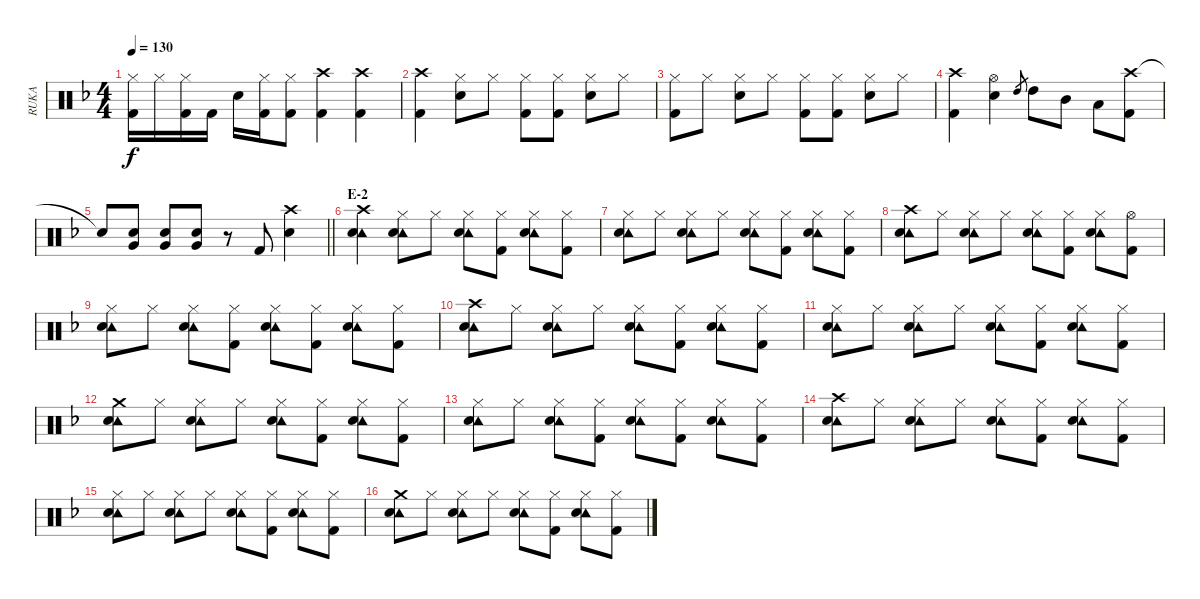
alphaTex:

\track ("RUKA" "RUKA") {instrument percussion}
\staff {score}
\articulation defaults
\ts (4 4)
\tempo 130
\clef neutral
\ks f
("Hi-Hat (closed)" "Kick (hit) 2").16{dy f} "Hi-Hat (closed)".16 ("Hi-Hat (closed)" "Kick (hit) 2").16 "Kick (hit) 2".16 "Snare (hit) 2".16 ("Hi-Hat (closed)" "Kick (hit) 2").16 ("Hi-Hat (closed)" "Kick (hit) 2").8 ("Crash high (hit)" "Kick (hit) 2").4 ("Crash high (hit)" "Kick (hit) 2").4 |
("Crash high (hit)" "Kick (hit) 2").4 ("Hi-Hat (closed)" "Snare (hit) 2").8 "Hi-Hat (closed)".8 ("Hi-Hat (closed)" "Kick (hit) 2").8 ("Hi-Hat (closed)" "Kick (hit) 2").8 ("Hi-Hat (closed)" "Snare (hit) 2").8 "Hi-Hat (closed)".8 |
("Hi-Hat (closed)" "Kick (hit) 2").8 "Hi-Hat (closed)".8 ("Hi-Hat (closed)" "Snare (hit) 2").8 "Hi-Hat (closed)".8 ("Hi-Hat (closed)" "Kick (hit) 2").8 ("Hi-Hat (closed)" "Kick (hit) 2").8 ("Hi-Hat (closed)" "Snare (hit) 2").8 "Hi-Hat (closed)".8 |
("Crash high (hit)" "Kick (hit) 2").4 ("Hi-Hat (open)" "Snare (hit) 2").4 "High Tom (hit)".8{gr} "High Tom (hit)".8 "Mid Tom (hit)".8 "Low Tom (hit)".8 ("Crash high (hit)" "Kick (hit) 2").8 |
\barLineRight lightlight "Snare (hit)"{t}.8
("Snare (hit) 2" "Very Low Tom (hit)").8 ("Snare (hit) 2" "Very Low Tom (hit)").8 ("Snare (hit) 2" "Very Low Tom (hit)").8 r.8 "Kick (hit) 2".8 ("Crash high (hit)" "Snare (hit) 2").4 |
\section ("" "E-2")
("Crash high (hit)" "Tambourine (hit)" "Snare (hit) 2").4 ("Hi-Hat (closed)" "Tambourine (hit)" "Snare (hit) 2").8 "Hi-Hat (closed)".8 ("Hi-Hat (closed)" "Tambourine (hit)" "Snare (hit) 2").8 ("Hi-Hat (closed)" "Kick (hit) 2").8 ("Hi-Hat (closed)" "Tambourine (hit)" "Snare (hit) 2").8 ("Hi-Hat (closed)" "Kick (hit) 2").8 |
("Hi-Hat (closed)" "Tambourine (hit)" "Snare (hit) 2").8 "Hi-Hat (closed)".8 ("Hi-Hat (closed)" "Tambourine (hit)" "Snare (hit) 2").8 "Hi-Hat (closed)".8 ("Hi-Hat (closed)" "Tambourine (hit)" "Snare (hit) 2").8 ("Hi-Hat (closed)" "Kick (hit) 2").8 ("Hi-Hat (closed)" "Tambourine (hit)" "Snare (hit) 2").8 ("Hi-Hat (closed)" "Kick (hit) 2").8 |
("Crash high (hit)" "Tambourine (hit)" "Snare (hit) 2").8 "Hi-Hat (closed)".8 ("Hi-Hat (closed)" "Tambourine (hit)" "Snare (hit) 2").8 "Hi-Hat (closed)".8 ("Hi-Hat (closed)" "Tambourine (hit)" "Snare (hit) 2").8 ("Hi-Hat (closed)" "Kick (hit) 2").8 ("Hi-Hat (closed)" "Tambourine (hit)" "Snare (hit) 2").8 ("Hi-Hat (open)" "Kick (hit) 2").8 |
("Hi-Hat (closed)" "Tambourine (hit)" "Snare (hit) 2").8 "Hi-Hat (closed)".8 ("Hi-Hat (closed)" "Tambourine (hit)" "Snare (hit) 2").8 ("Hi-Hat (closed)" "Kick (hit) 2").8 ("Hi-Hat (closed)" "Tambourine (hit)" "Snare (hit) 2").8 ("Hi-Hat (closed)" "Kick (hit) 2").8 ("Hi-Hat (closed)" "Tambourine (hit)" "Snare (hit) 2").8 ("Hi-Hat (closed)" "Kick (hit) 2").8 |
("Crash high (hit)" "Tambourine (hit)" "Snare (hit) 2").8 "Hi-Hat (closed)".8 ("Hi-Hat (closed)" "Tambourine (hit)" "Snare (hit) 2").8 "Hi-Hat (closed)".8 ("Hi-Hat (closed)" "Tambourine (hit)" "Snare (hit) 2").8 ("Hi-Hat (closed)" "Kick (hit) 2").8 ("Hi-Hat (closed)" "Tambourine (hit)" "Snare (hit) 2").8 ("Hi-Hat (closed)" "Kick (hit) 2").8 |
("Hi-Hat (closed)" "Tambourine (hit)" "Snare (hit) 2").8 "Hi-Hat (closed)".8 ("Hi-Hat (closed)" "Tambourine (hit)" "Snare (hit) 2").8 "Hi-Hat (closed)".8 ("Hi-Hat (closed)" "Tambourine (hit)" "Snare (hit) 2").8 ("Hi-Hat (closed)" "Kick (hit) 2").8 ("Hi-Hat (closed)" "Tambourine (hit)" "Snare (hit) 2").8 ("Hi-Hat (closed)" "Kick (hit) 2").8 |
("Crash medium (hit)" "Tambourine (hit)" "Snare (hit) 2").8 "Hi-Hat (closed)".8 ("Hi-Hat (closed)" "Tambourine (hit)" "Snare (hit) 2").8 "Hi-Hat (closed)".8 ("Hi-Hat (closed)" "Tambourine (hit)" "Snare (hit) 2").8 ("Hi-Hat (closed)" "Kick (hit) 2").8 ("Hi-Hat (closed)" "Tambourine (hit)" "Snare (hit) 2").8 ("Hi-Hat (closed)" "Kick (hit) 2").8 |
("Hi-Hat (closed)" "Tambourine (hit)" "Snare (hit) 2").8 "Hi-Hat (closed)".8 ("Hi-Hat (closed)" "Tambourine (hit)" "Snare (hit) 2").8 ("Hi-Hat (closed)" "Kick (hit) 2").8 ("Hi-Hat (closed)" "Tambourine (hit)" "Snare (hit) 2").8 ("Hi-Hat (closed)" "Kick (hit) 2").8 ("Hi-Hat (closed)" "Tambourine (hit)" "Snare (hit) 2").8 ("Hi-Hat (closed)" "Kick (hit) 2").8 |
("Crash high (hit)" "Tambourine (hit)" "Snare (hit) 2").8 "Hi-Hat (closed)".8 ("Hi-Hat (closed)" "Tambourine (hit)" "Snare (hit) 2").8 "Hi-Hat (closed)".8 ("Hi-Hat (closed)" "Tambourine (hit)" "Snare (hit) 2").8 ("Hi-Hat (closed)" "Kick (hit) 2").8 ("Hi-Hat (closed)" "Tambourine (hit)" "Snare (hit) 2").8 ("Hi-Hat (closed)" "Kick (hit) 2").8 |
("Hi-Hat (closed)" "Tambourine (hit)" "Snare (hit) 2").8 "Hi-Hat (closed)".8 ("Hi-Hat (closed)" "Tambourine (hit)" "Snare (hit) 2").8 "Hi-Hat (closed)".8 ("Hi-Hat (closed)" "Tambourine (hit)" "Snare (hit) 2").8 ("Hi-Hat (closed)" "Kick (hit) 2").8 ("Hi-Hat (closed)" "Tambourine (hit)" "Snare (hit) 2").8 ("Hi-Hat (closed)" "Kick (hit) 2").8 |
("Crash medium (hit)" "Tambourine (hit)" "Snare (hit) 2").8 "Hi-Hat (closed)".8 ("Hi-Hat (closed)" "Tambourine (hit)" "Snare (hit) 2").8 "Hi-Hat (closed)".8 ("Hi-Hat (closed)" "Tambourine (hit)" "Snare (hit) 2").8 ("Hi-Hat (closed)" "Kick (hit) 2").8 ("Hi-Hat (closed)" "Tambourine (hit)" "Snare (hit) 2").8 ("Hi-Hat (closed)" "Kick (hit) 2").8
